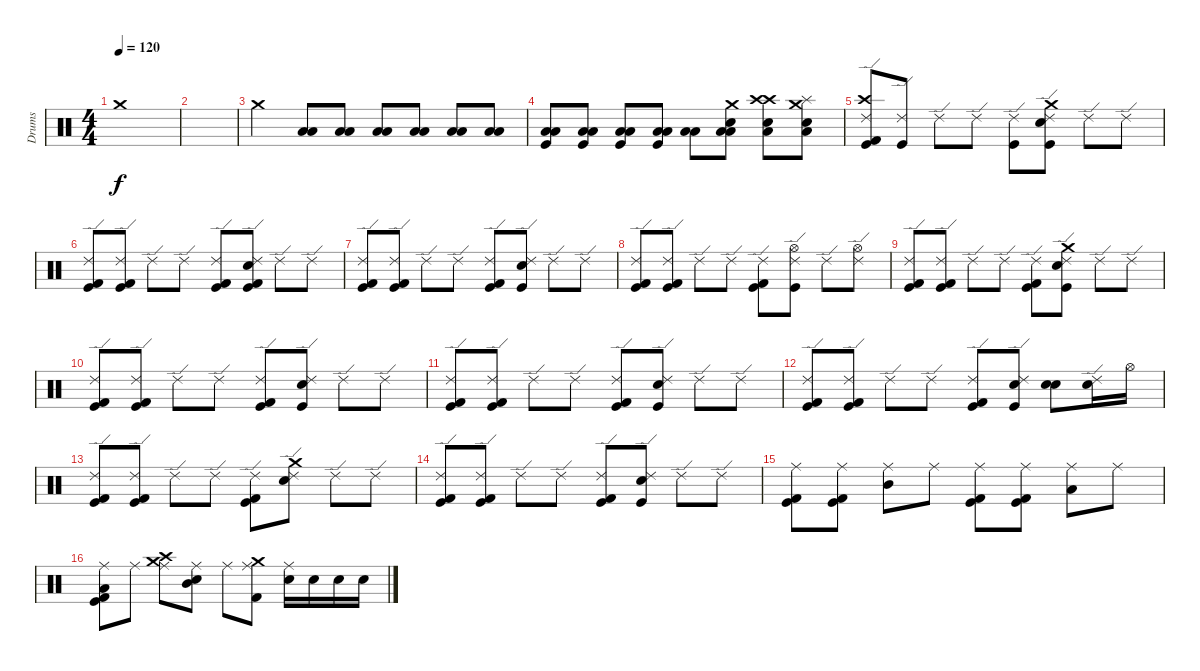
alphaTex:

\track ("Drums" "Drums") {instrument percussion}
\staff {score}
\articulation defaults
\ts (4 4)
\tempo 120
\clef neutral
\ks c "Crash medium (hit)".1{dy f}
|
|
"Crash medium (hit)".4 ("Low Floor Tom (hit)" "Low Tom (hit)").8 ("Low Floor Tom (hit)" "Low Tom (hit)").8 ("Low Floor Tom (hit)" "Low Tom (hit)").8 ("Low Floor Tom (hit)" "Low Tom (hit)").8 ("Low Floor Tom (hit)" "Low Tom (hit)").8 ("Low Floor Tom (hit)" "Low Tom (hit)").8 |
("Low Floor Tom (hit)" "Low Tom (hit)" "Kick (hit)").8 ("Low Floor Tom (hit)" "Low Tom (hit)" "Kick (hit)").8 ("Low Floor Tom (hit)" "Low Tom (hit)" "Kick (hit)").8 ("Low Floor Tom (hit)" "Low Tom (hit)" "Kick (hit)").8 ("Low Floor Tom (hit)" "Low Tom (hit)").8 ("Low Floor Tom (hit)" "Snare (hit) 2" "Low Tom (hit)" "Crash medium (hit)").8 ("Low Floor Tom (hit)" "Snare (hit) 2" "Crash high (hit)" "Crash high (hit)").8 ("Low Floor Tom (hit)" "Snare (hit) 2" "Splash (hit)" "Crash medium (hit)").8 |
("Crash high (hit)" "Ride (edge) 2" "Kick (hit) 2" "Kick (hit)").8 ("Ride (edge) 2" "Kick (hit)").8 "Ride (edge) 2".8 "Ride (edge) 2".8 ("Ride (edge) 2" "Kick (hit)").8 ("Ride (edge) 2" "Crash medium (hit)" "Snare (hit) 2" "Kick (hit)").8 "Ride (edge) 2".8 "Ride (edge) 2".8 |
("Ride (edge) 2" "Kick (hit) 2" "Kick (hit)").8 ("Ride (edge) 2" "Kick (hit) 2" "Kick (hit)").8 "Ride (edge) 2".8 "Ride (edge) 2".8 ("Ride (edge) 2" "Kick (hit) 2" "Kick (hit)").8 ("Ride (edge) 2" "Snare (hit) 2" "Kick (hit)" "Kick (hit) 2").8 "Ride (edge) 2".8 "Ride (edge) 2".8 |
("Ride (edge) 2" "Kick (hit) 2" "Kick (hit)").8 ("Ride (edge) 2" "Kick (hit) 2" "Kick (hit)").8 "Ride (edge) 2".8 "Ride (edge) 2".8 ("Ride (edge) 2" "Kick (hit) 2" "Kick (hit)").8 ("Ride (edge) 2" "Snare (hit) 2" "Kick (hit)").8 "Ride (edge) 2".8 "Ride (edge) 2".8 |
("Ride (edge) 2" "Kick (hit) 2" "Kick (hit)").8 ("Ride (edge) 2" "Kick (hit) 2" "Kick (hit)").8 "Ride (edge) 2".8 "Ride (edge) 2".8 ("Ride (edge) 2" "Kick (hit) 2" "Kick (hit)").8 ("Ride (edge) 2" "Hi-Hat (open)" "Kick (hit)").8 "Ride (edge) 2".8 ("Ride (edge) 2" "Hi-Hat (open)").8 |
("Ride (edge) 2" "Kick (hit) 2" "Kick (hit)").8 ("Ride (edge) 2" "Kick (hit) 2" "Kick (hit)").8 "Ride (edge) 2".8 "Ride (edge) 2".8 ("Ride (edge) 2" "Kick (hit) 2" "Kick (hit)").8 ("Ride (edge) 2" "Snare (hit) 2" "Kick (hit)" "Crash medium (hit)").8 "Ride (edge) 2".8 "Ride (edge) 2".8 |
("Ride (edge) 2" "Kick (hit) 2" "Kick (hit)").8 ("Ride (edge) 2" "Kick (hit) 2" "Kick (hit)").8 "Ride (edge) 2".8 "Ride (edge) 2".8 ("Ride (edge) 2" "Kick (hit) 2" "Kick (hit)").8 ("Ride (edge) 2" "Snare (hit) 2" "Kick (hit)").8 "Ride (edge) 2".8 "Ride (edge) 2".8 |
("Ride (edge) 2" "Kick (hit) 2" "Kick (hit)").8 ("Ride (edge) 2" "Kick (hit) 2" "Kick (hit)").8 "Ride (edge) 2".8 "Ride (edge) 2".8 ("Ride (edge) 2" "Kick (hit) 2" "Kick (hit)").8 ("Ride (edge) 2" "Snare (hit) 2" "Kick (hit)").8 "Ride (edge) 2".8 "Ride (edge) 2".8 |
("Ride (edge) 2" "Kick (hit) 2" "Kick (hit)").8 ("Ride (edge) 2" "Kick (hit) 2" "Kick (hit)").8 "Ride (edge) 2".8 "Ride (edge) 2".8 ("Ride (edge) 2" "Kick (hit) 2" "Kick (hit)").8 ("Ride (edge) 2" "Snare (hit) 2" "Kick (hit)").8 ("Snare (hit) 2" "Snare (hit) 2").8 ("Ride (edge) 2" "Snare (hit) 2").16 "Hi-Hat (open)".16 |
("Ride (edge) 2" "Kick (hit) 2" "Kick (hit)").8 ("Ride (edge) 2" "Kick (hit) 2" "Kick (hit)").8 "Ride (edge) 2".8 "Ride (edge) 2".8 ("Ride (edge) 2" "Kick (hit) 2" "Kick (hit)").8 ("Ride (edge) 2" "Snare (hit) 2" "Crash medium (hit)").8 "Ride (edge) 2".8 "Ride (edge) 2".8 |
("Ride (edge) 2" "Kick (hit) 2" "Kick (hit)").8 ("Ride (edge) 2" "Kick (hit) 2" "Kick (hit)").8 "Ride (edge) 2".8 "Ride (edge) 2".8 ("Ride (edge) 2" "Kick (hit) 2" "Kick (hit)").8 ("Ride (edge) 2" "Snare (hit) 2" "Kick (hit)").8 "Ride (edge) 2".8 "Ride (edge) 2".8 |
("Ride (middle)" "Kick (hit) 2" "Kick (hit)").8 ("Ride (middle)" "Kick (hit) 2" "Kick (hit)").8 ("Ride (middle)" "Mid Tom (hit)").8 "Ride (middle)".8 ("Ride (middle)" "Kick (hit) 2" "Kick (hit)").8 ("Ride (middle)" "Kick (hit) 2" "Kick (hit)").8 ("Ride (middle)" "Low Tom (hit)").8 "Ride (middle)".8 |
("Ride (middle)" "Kick (hit) 2" "Kick (hit)" "Low Tom (hit)").8 "Ride (middle)".8 ("Ride (middle)" "Crash medium (hit)" "Crash high (hit)").8 ("Ride (middle)" "Snare (hit) 2" "Mid Tom (hit)").8 "Ride (middle)".8 ("Ride (middle)" "Kick (hit) 2" "Crash medium (hit)").8 ("Ride (middle)" "Snare (hit) 2").16 "Snare (hit) 2".16 "Snare (hit) 2".16 "Snare (hit) 2".16
